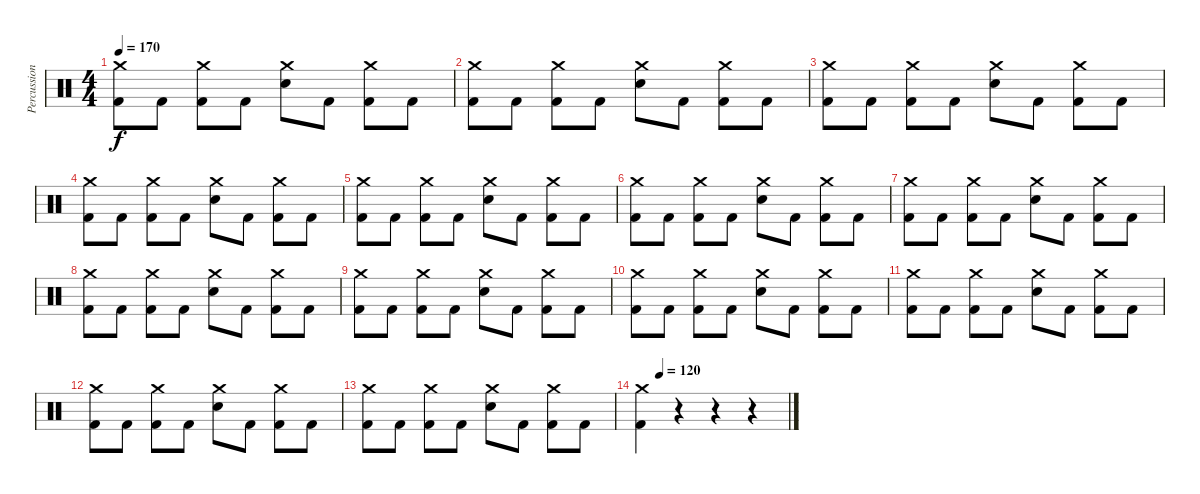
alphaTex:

\track ("Percussion" "Percussion") {instrument percussion}
\staff {score}
\articulation defaults
\ts (4 4)
\tempo 170
\clef neutral
\ks c
("Crash medium (hit)" "Kick (hit) 2").8{dy f} "Kick (hit) 2".8 ("Crash medium (hit)" "Kick (hit) 2").8 "Kick (hit) 2".8 ("Crash medium (hit)" "Electric Snare (hit)").8 "Kick (hit) 2".8 ("Crash medium (hit)" "Kick (hit) 2").8 "Kick (hit) 2".8 |
("Crash medium (hit)" "Kick (hit) 2").8 "Kick (hit) 2".8 ("Crash medium (hit)" "Kick (hit) 2").8 "Kick (hit) 2".8 ("Crash medium (hit)" "Electric Snare (hit)").8 "Kick (hit) 2".8 ("Crash medium (hit)" "Kick (hit) 2").8 "Kick (hit) 2".8 |
("Crash medium (hit)" "Kick (hit) 2").8 "Kick (hit) 2".8 ("Crash medium (hit)" "Kick (hit) 2").8 "Kick (hit) 2".8 ("Crash medium (hit)" "Electric Snare (hit)").8 "Kick (hit) 2".8 ("Crash medium (hit)" "Kick (hit) 2").8 "Kick (hit) 2".8 |
("Crash medium (hit)" "Kick (hit) 2").8 "Kick (hit) 2".8 ("Crash medium (hit)" "Kick (hit) 2").8 "Kick (hit) 2".8 ("Crash medium (hit)" "Electric Snare (hit)").8 "Kick (hit) 2".8 ("Crash medium (hit)" "Kick (hit) 2").8 "Kick (hit) 2".8 |
("Crash medium (hit)" "Kick (hit) 2").8 "Kick (hit) 2".8 ("Crash medium (hit)" "Kick (hit) 2").8 "Kick (hit) 2".8 ("Crash medium (hit)" "Electric Snare (hit)").8 "Kick (hit) 2".8 ("Crash medium (hit)" "Kick (hit) 2").8 "Kick (hit) 2".8 |
("Crash medium (hit)" "Kick (hit) 2").8 "Kick (hit) 2".8 ("Crash medium (hit)" "Kick (hit) 2").8 "Kick (hit) 2".8 ("Crash medium (hit)" "Electric Snare (hit)").8 "Kick (hit) 2".8 ("Crash medium (hit)" "Kick (hit) 2").8 "Kick (hit) 2".8 |
("Crash medium (hit)" "Kick (hit) 2").8 "Kick (hit) 2".8 ("Crash medium (hit)" "Kick (hit) 2").8 "Kick (hit) 2".8 ("Crash medium (hit)" "Electric Snare (hit)").8 "Kick (hit) 2".8 ("Crash medium (hit)" "Kick (hit) 2").8 "Kick (hit) 2".8 |
("Crash medium (hit)" "Kick (hit) 2").8 "Kick (hit) 2".8 ("Crash medium (hit)" "Kick (hit) 2").8 "Kick (hit) 2".8 ("Crash medium (hit)" "Electric Snare (hit)").8 "Kick (hit) 2".8 ("Crash medium (hit)" "Kick (hit) 2").8 "Kick (hit) 2".8 |
("Crash medium (hit)" "Kick (hit) 2").8 "Kick (hit) 2".8 ("Crash medium (hit)" "Kick (hit) 2").8 "Kick (hit) 2".8 ("Crash medium (hit)" "Electric Snare (hit)").8 "Kick (hit) 2".8 ("Crash medium (hit)" "Kick (hit) 2").8 "Kick (hit) 2".8 |
("Crash medium (hit)" "Kick (hit) 2").8 "Kick (hit) 2".8 ("Crash medium (hit)" "Kick (hit) 2").8 "Kick (hit) 2".8 ("Crash medium (hit)" "Electric Snare (hit)").8 "Kick (hit) 2".8 ("Crash medium (hit)" "Kick (hit) 2").8 "Kick (hit) 2".8 |
("Crash medium (hit)" "Kick (hit) 2").8 "Kick (hit) 2".8 ("Crash medium (hit)" "Kick (hit) 2").8 "Kick (hit) 2".8 ("Crash medium (hit)" "Electric Snare (hit)").8 "Kick (hit) 2".8 ("Crash medium (hit)" "Kick (hit) 2").8 "Kick (hit) 2".8 |
("Crash medium (hit)" "Kick (hit) 2").8 "Kick (hit) 2".8 ("Crash medium (hit)" "Kick (hit) 2").8 "Kick (hit) 2".8 ("Crash medium (hit)" "Electric Snare (hit)").8 "Kick (hit) 2".8 ("Crash medium (hit)" "Kick (hit) 2").8 "Kick (hit) 2".8 |
("Crash medium (hit)" "Kick (hit) 2").8 "Kick (hit) 2".8 ("Crash medium (hit)" "Kick (hit) 2").8 "Kick (hit) 2".8 ("Crash medium (hit)" "Electric Snare (hit)").8 "Kick (hit) 2".8 ("Crash medium (hit)" "Kick (hit) 2").8 "Kick (hit) 2".8 |
\tempo (120 0.125)
("Crash medium (hit)" "Kick (hit) 2").4 r.4 r.4 r.4
